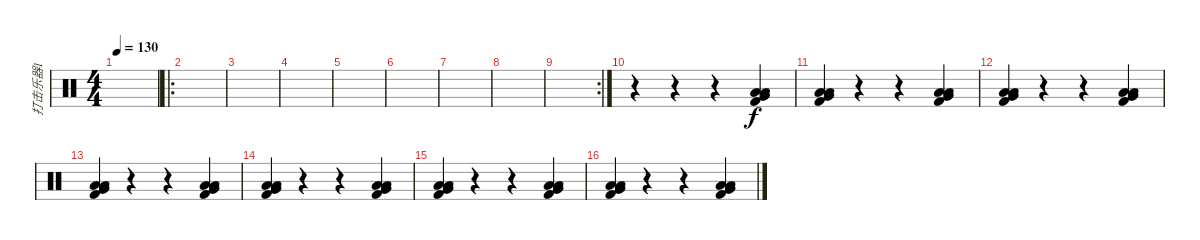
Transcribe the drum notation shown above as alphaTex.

\track ("打击乐器1" "打击乐器1") {instrument percussion}
\staff {score}
\articulation defaults
\ts (4 4)
\tempo 130
\clef neutral
\ks c
|
\ro
|
|
|
|
|
|
|
\rc 2
|
r.4 r.4 r.4 ("Low Floor Tom (hit)" "Very Low Tom (hit)" "Low Tom (hit)" "Kick (hit) 2").4 |
("Low Floor Tom (hit)" "Very Low Tom (hit)" "Low Tom (hit)" "Kick (hit) 2").4 r.4 r.4 ("Low Floor Tom (hit)" "Very Low Tom (hit)" "Low Tom (hit)" "Kick (hit) 2").4 |
("Low Floor Tom (hit)" "Very Low Tom (hit)" "Low Tom (hit)" "Kick (hit) 2").4 r.4 r.4 ("Low Floor Tom (hit)" "Very Low Tom (hit)" "Low Tom (hit)" "Kick (hit) 2").4 |
("Low Floor Tom (hit)" "Very Low Tom (hit)" "Low Tom (hit)" "Kick (hit) 2").4 r.4 r.4 ("Low Floor Tom (hit)" "Very Low Tom (hit)" "Low Tom (hit)" "Kick (hit) 2").4 |
("Low Floor Tom (hit)" "Very Low Tom (hit)" "Low Tom (hit)" "Kick (hit) 2").4 r.4 r.4 ("Low Floor Tom (hit)" "Very Low Tom (hit)" "Low Tom (hit)" "Kick (hit) 2").4 |
("Low Floor Tom (hit)" "Very Low Tom (hit)" "Low Tom (hit)" "Kick (hit) 2").4 r.4 r.4 ("Low Floor Tom (hit)" "Very Low Tom (hit)" "Low Tom (hit)" "Kick (hit) 2").4 |
("Low Floor Tom (hit)" "Very Low Tom (hit)" "Low Tom (hit)" "Kick (hit) 2").4 r.4 r.4 ("Low Floor Tom (hit)" "Very Low Tom (hit)" "Low Tom (hit)" "Kick (hit) 2").4
